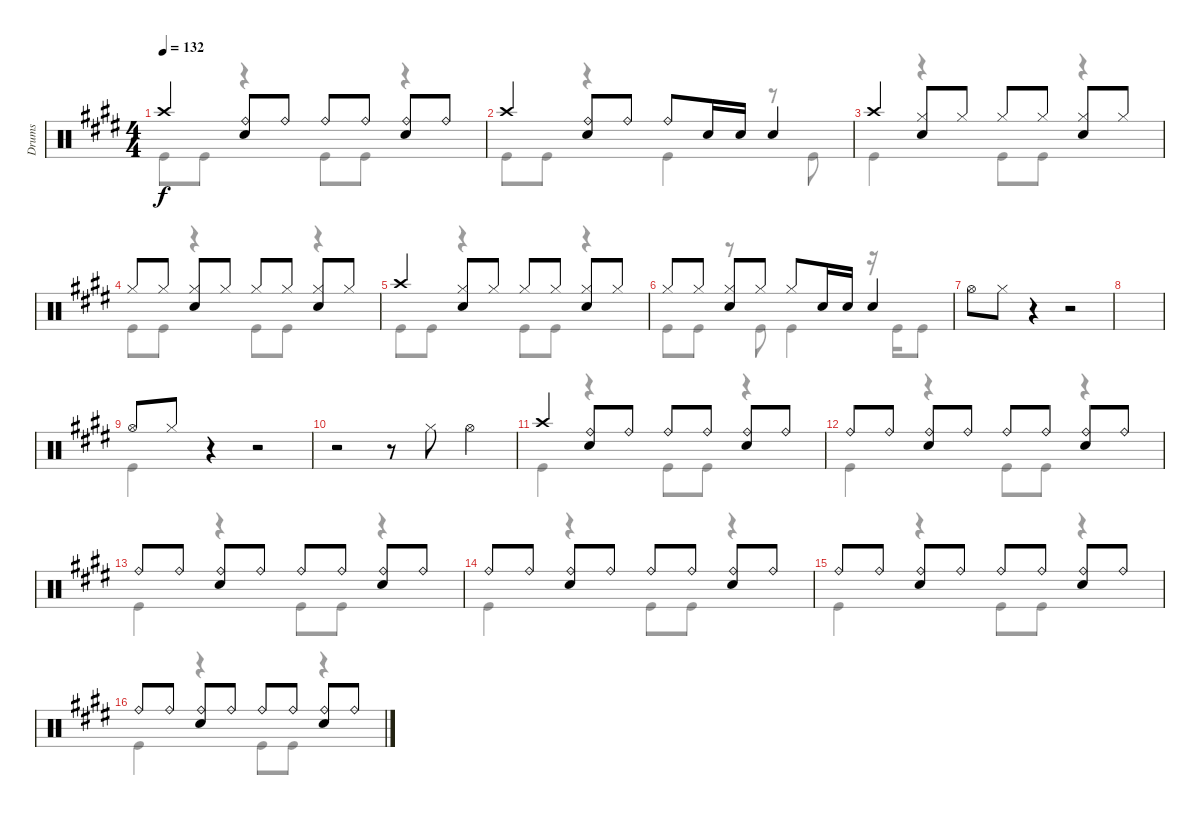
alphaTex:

\track ("Drums" "Drums") {instrument percussion}
\staff {score}
\articulation defaults
\voice
\ts (4 4)
\tempo 132
\clef neutral
\ks e "Crash high (hit)".4{dy f}
("Ride (bell)" "Snare (hit) 2").8 "Ride (bell)".8 "Ride (bell)".8 "Ride (bell)".8 ("Ride (bell)" "Snare (hit) 2").8 "Ride (bell)".8 |
"Crash high (hit)".4 ("Ride (bell)" "Snare (hit) 2").8 "Ride (bell)".8 "Ride (bell)".8 "Snare (hit) 2".16 "Snare (hit) 2".16 "Snare (hit) 2".4 |
"Crash high (hit)".4 ("Hi-Hat (closed)" "Snare (hit) 2").8 "Hi-Hat (closed)".8 "Hi-Hat (closed)".8 "Hi-Hat (closed)".8 ("Hi-Hat (closed)" "Snare (hit) 2").8 "Hi-Hat (closed)".8 |
"Hi-Hat (closed)".8 "Hi-Hat (closed)".8 ("Hi-Hat (closed)" "Snare (hit) 2").8 "Hi-Hat (closed)".8 "Hi-Hat (closed)".8 "Hi-Hat (closed)".8 ("Hi-Hat (closed)" "Snare (hit) 2").8 "Hi-Hat (closed)".8 |
"Crash high (hit)".4 ("Hi-Hat (closed)" "Snare (hit) 2").8 "Hi-Hat (closed)".8 "Hi-Hat (closed)".8 "Hi-Hat (closed)".8 ("Hi-Hat (closed)" "Snare (hit) 2").8 "Hi-Hat (closed)".8 |
"Hi-Hat (closed)".8 "Hi-Hat (closed)".8 ("Hi-Hat (closed)" "Snare (hit) 2").8 "Hi-Hat (closed)".8 "Hi-Hat (closed)".8 "Snare (hit) 2".16 "Snare (hit) 2".16 "Snare (hit) 2".4 |
"Hi-Hat (open)".8 "Hi-Hat (closed)".8 r.4 r.2 |
|
"Hi-Hat (open)".8 "Hi-Hat (closed)".8 r.4 r.2 |
r.2 r.8 "Hi-Hat (closed)".8 "Hi-Hat (open)".4 |
"Crash high (hit)".4 ("Ride (bell)" "Snare (hit) 2").8 "Ride (bell)".8 "Ride (bell)".8 "Ride (bell)".8 ("Ride (bell)" "Snare (hit) 2").8 "Ride (bell)".8 |
"Ride (bell)".8 "Ride (bell)".8 ("Ride (bell)" "Snare (hit) 2").8 "Ride (bell)".8 "Ride (bell)".8 "Ride (bell)".8 ("Ride (bell)" "Snare (hit) 2").8 "Ride (bell)".8 |
"Ride (bell)".8 "Ride (bell)".8 ("Ride (bell)" "Snare (hit) 2").8 "Ride (bell)".8 "Ride (bell)".8 "Ride (bell)".8 ("Ride (bell)" "Snare (hit) 2").8 "Ride (bell)".8 |
"Ride (bell)".8 "Ride (bell)".8 ("Ride (bell)" "Snare (hit) 2").8 "Ride (bell)".8 "Ride (bell)".8 "Ride (bell)".8 ("Ride (bell)" "Snare (hit) 2").8 "Ride (bell)".8 |
"Ride (bell)".8 "Ride (bell)".8 ("Ride (bell)" "Snare (hit) 2").8 "Ride (bell)".8 "Ride (bell)".8 "Ride (bell)".8 ("Ride (bell)" "Snare (hit) 2").8 "Ride (bell)".8 |
"Ride (bell)".8 "Ride (bell)".8 ("Ride (bell)" "Snare (hit) 2").8 "Ride (bell)".8 "Ride (bell)".8 "Ride (bell)".8 ("Ride (bell)" "Snare (hit) 2").8 "Ride (bell)".8
\voice
\clef neutral
\ottava regular
\simile none
\ks e "Kick (hit)".8{dy f} "Kick (hit)".8
r.4 "Kick (hit)".8 "Kick (hit)".8 r.4 |
"Kick (hit)".8 "Kick (hit)".8 r.4 "Kick (hit)".4 r.8 "Kick (hit)".8 |
"Kick (hit)".4 r.4 "Kick (hit)".8 "Kick (hit)".8 r.4 |
"Kick (hit)".8 "Kick (hit)".8 r.4 "Kick (hit)".8 "Kick (hit)".8 r.4 |
"Kick (hit)".8 "Kick (hit)".8 r.4 "Kick (hit)".8 "Kick (hit)".8 r.4 |
"Kick (hit)".8 "Kick (hit)".8 r.8 "Kick (hit)".8 "Kick (hit)".4 r.16 "Kick (hit)".16 "Kick (hit)".8 |
|
|
"Kick (hit)".4 r.4 r.2 |
|
"Kick (hit)".4 r.4 "Kick (hit)".8 "Kick (hit)".8 r.4 |
"Kick (hit)".4 r.4 "Kick (hit)".8 "Kick (hit)".8 r.4 |
"Kick (hit)".4 r.4 "Kick (hit)".8 "Kick (hit)".8 r.4 |
"Kick (hit)".4 r.4 "Kick (hit)".8 "Kick (hit)".8 r.4 |
"Kick (hit)".4 r.4 "Kick (hit)".8 "Kick (hit)".8 r.4 |
"Kick (hit)".4 r.4 "Kick (hit)".8 "Kick (hit)".8 r.4
